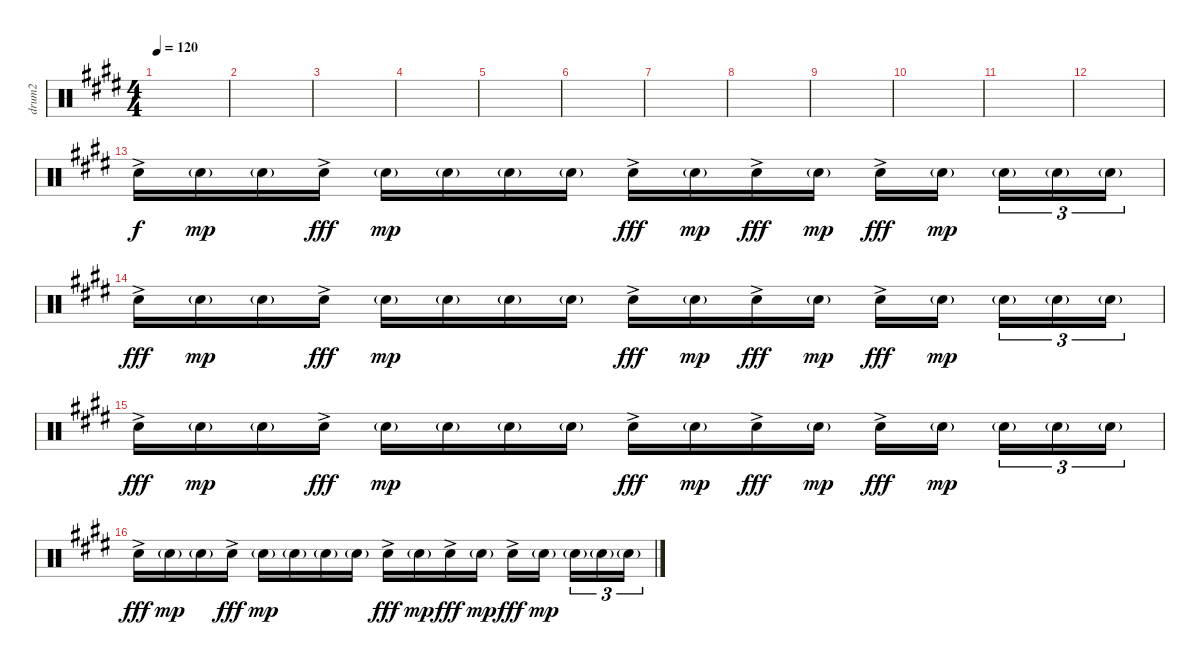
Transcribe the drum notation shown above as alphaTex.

\track ("drum2" "drum2") {instrument percussion}
\staff {score}
\articulation defaults
\ts (4 4)
\tempo 120
\clef neutral
\ks e
|
|
|
|
|
|
|
|
|
|
|
|
"Snare (hit) 2"{ac}.16 "Snare (hit) 2"{g}.16{dy mp} "Snare (hit) 2"{g}.16 "Snare (hit) 2"{ac}.16{dy fff} "Snare (hit) 2"{g}.16{dy mp} "Snare (hit) 2"{g}.16 "Snare (hit) 2"{g}.16 "Snare (hit) 2"{g}.16 "Snare (hit) 2"{ac}.16{dy fff} "Snare (hit) 2"{g}.16{dy mp} "Snare (hit) 2"{ac}.16{dy fff} "Snare (hit) 2"{g}.16{dy mp} "Snare (hit) 2"{ac}.16{dy fff} "Snare (hit) 2"{g}.16{dy mp} "Snare (hit) 2"{g}.16{tu (3 2)} "Snare (hit) 2"{g}.16{tu (3 2)} "Snare (hit) 2"{g}.16{tu (3 2)} |
"Snare (hit) 2"{ac}.16{dy fff} "Snare (hit) 2"{g}.16{dy mp} "Snare (hit) 2"{g}.16 "Snare (hit) 2"{ac}.16{dy fff} "Snare (hit) 2"{g}.16{dy mp} "Snare (hit) 2"{g}.16 "Snare (hit) 2"{g}.16 "Snare (hit) 2"{g}.16 "Snare (hit) 2"{ac}.16{dy fff} "Snare (hit) 2"{g}.16{dy mp} "Snare (hit) 2"{ac}.16{dy fff} "Snare (hit) 2"{g}.16{dy mp} "Snare (hit) 2"{ac}.16{dy fff} "Snare (hit) 2"{g}.16{dy mp} "Snare (hit) 2"{g}.16{tu (3 2)} "Snare (hit) 2"{g}.16{tu (3 2)} "Snare (hit) 2"{g}.16{tu (3 2)} |
"Snare (hit) 2"{ac}.16{dy fff} "Snare (hit) 2"{g}.16{dy mp} "Snare (hit) 2"{g}.16 "Snare (hit) 2"{ac}.16{dy fff} "Snare (hit) 2"{g}.16{dy mp} "Snare (hit) 2"{g}.16 "Snare (hit) 2"{g}.16 "Snare (hit) 2"{g}.16 "Snare (hit) 2"{ac}.16{dy fff} "Snare (hit) 2"{g}.16{dy mp} "Snare (hit) 2"{ac}.16{dy fff} "Snare (hit) 2"{g}.16{dy mp} "Snare (hit) 2"{ac}.16{dy fff} "Snare (hit) 2"{g}.16{dy mp} "Snare (hit) 2"{g}.16{tu (3 2)} "Snare (hit) 2"{g}.16{tu (3 2)} "Snare (hit) 2"{g}.16{tu (3 2)} |
"Snare (hit) 2"{ac}.16{dy fff} "Snare (hit) 2"{g}.16{dy mp} "Snare (hit) 2"{g}.16 "Snare (hit) 2"{ac}.16{dy fff} "Snare (hit) 2"{g}.16{dy mp} "Snare (hit) 2"{g}.16 "Snare (hit) 2"{g}.16 "Snare (hit) 2"{g}.16 "Snare (hit) 2"{ac}.16{dy fff} "Snare (hit) 2"{g}.16{dy mp} "Snare (hit) 2"{ac}.16{dy fff} "Snare (hit) 2"{g}.16{dy mp} "Snare (hit) 2"{ac}.16{dy fff} "Snare (hit) 2"{g}.16{dy mp} "Snare (hit) 2"{g}.16{tu (3 2)} "Snare (hit) 2"{g}.16{tu (3 2)} "Snare (hit) 2"{g}.16{tu (3 2)}
